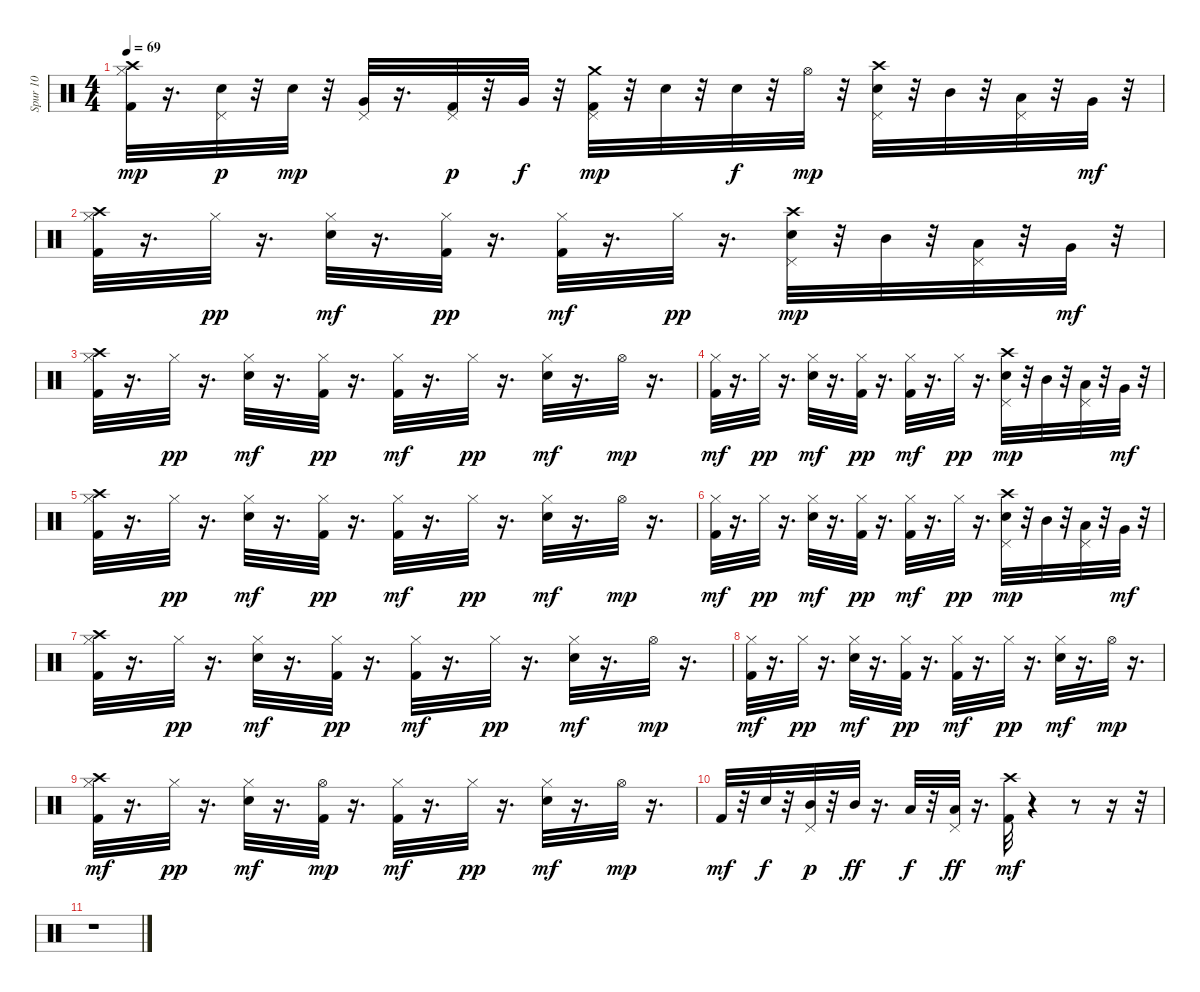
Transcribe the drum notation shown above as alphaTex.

\track ("Spur 10" "Spur 10") {instrument percussion}
\staff {score}
\articulation defaults
\ts (4 4)
\tempo 69
\clef neutral
\ks c
("Kick (hit) 2" "Hi-Hat (closed)" "Crash high (hit)").32{dy mp} r.16{d} ("Electric Snare (hit)" "Pedal Hi-Hat (hit)").32{dy p} r.32 "Electric Snare (hit)".32{dy mp} r.32 ("Very Low Tom (hit)" "Pedal Hi-Hat (hit)").32 r.16{d} ("Kick (hit) 2" "Pedal Hi-Hat (hit)").32{dy p} r.32 "Very Low Tom (hit)".32{dy f} r.32 ("Kick (hit) 2" "Pedal Hi-Hat (hit)" "Crash medium (hit)").32{dy mp} r.32 "Electric Snare (hit)".32 r.32 "Electric Snare (hit)".32{dy f} r.32 "Hi-Hat (open)".32{dy mp} r.32 ("Electric Snare (hit)" "Pedal Hi-Hat (hit)" "Crash high (hit)").32 r.32 "Mid Tom (hit)".32 r.32 ("Pedal Hi-Hat (hit)" "Low Tom (hit)").32 r.32 "Very Low Tom (hit)".32{dy mf} r.32 |
("Crash high (hit)" "Kick (hit) 2" "Hi-Hat (closed)").32 r.16{d} "Hi-Hat (closed)".32{dy pp} r.16{d} ("Electric Snare (hit)" "Hi-Hat (closed)").32{dy mf} r.16{d} ("Kick (hit) 2" "Hi-Hat (closed)").32{dy pp} r.16{d} ("Kick (hit) 2" "Hi-Hat (closed)").32{dy mf} r.16{d} "Hi-Hat (closed)".32{dy pp} r.16{d} ("Electric Snare (hit)" "Pedal Hi-Hat (hit)" "Crash high (hit)").32{dy mp} r.32 "Mid Tom (hit)".32 r.32 ("Pedal Hi-Hat (hit)" "Low Tom (hit)").32 r.32 "Very Low Tom (hit)".32{dy mf} r.32 |
("Crash high (hit)" "Kick (hit) 2" "Hi-Hat (closed)").32 r.16{d} "Hi-Hat (closed)".32{dy pp} r.16{d} ("Electric Snare (hit)" "Hi-Hat (closed)").32{dy mf} r.16{d} ("Kick (hit) 2" "Hi-Hat (closed)").32{dy pp} r.16{d} ("Kick (hit) 2" "Hi-Hat (closed)").32{dy mf} r.16{d} "Hi-Hat (closed)".32{dy pp} r.16{d} ("Electric Snare (hit)" "Hi-Hat (closed)").32{dy mf} r.16{d} "Hi-Hat (open)".32{dy mp} r.16{d} |
("Kick (hit) 2" "Hi-Hat (closed)").32{dy mf} r.16{d} "Hi-Hat (closed)".32{dy pp} r.16{d} ("Electric Snare (hit)" "Hi-Hat (closed)").32{dy mf} r.16{d} ("Kick (hit) 2" "Hi-Hat (closed)").32{dy pp} r.16{d} ("Kick (hit) 2" "Hi-Hat (closed)").32{dy mf} r.16{d} "Hi-Hat (closed)".32{dy pp} r.16{d} ("Electric Snare (hit)" "Pedal Hi-Hat (hit)" "Crash high (hit)").32{dy mp} r.32 "Mid Tom (hit)".32 r.32 ("Pedal Hi-Hat (hit)" "Low Tom (hit)").32 r.32 "Very Low Tom (hit)".32{dy mf} r.32 |
("Crash high (hit)" "Kick (hit) 2" "Hi-Hat (closed)").32 r.16{d} "Hi-Hat (closed)".32{dy pp} r.16{d} ("Electric Snare (hit)" "Hi-Hat (closed)").32{dy mf} r.16{d} ("Kick (hit) 2" "Hi-Hat (closed)").32{dy pp} r.16{d} ("Kick (hit) 2" "Hi-Hat (closed)").32{dy mf} r.16{d} "Hi-Hat (closed)".32{dy pp} r.16{d} ("Electric Snare (hit)" "Hi-Hat (closed)").32{dy mf} r.16{d} "Hi-Hat (open)".32{dy mp} r.16{d} |
("Kick (hit) 2" "Hi-Hat (closed)").32{dy mf} r.16{d} "Hi-Hat (closed)".32{dy pp} r.16{d} ("Electric Snare (hit)" "Hi-Hat (closed)").32{dy mf} r.16{d} ("Kick (hit) 2" "Hi-Hat (closed)").32{dy pp} r.16{d} ("Kick (hit) 2" "Hi-Hat (closed)").32{dy mf} r.16{d} "Hi-Hat (closed)".32{dy pp} r.16{d} ("Electric Snare (hit)" "Pedal Hi-Hat (hit)" "Crash high (hit)").32{dy mp} r.32 "Mid Tom (hit)".32 r.32 ("Pedal Hi-Hat (hit)" "Low Tom (hit)").32 r.32 "Very Low Tom (hit)".32{dy mf} r.32 |
("Crash high (hit)" "Kick (hit) 2" "Hi-Hat (closed)").32 r.16{d} "Hi-Hat (closed)".32{dy pp} r.16{d} ("Electric Snare (hit)" "Hi-Hat (closed)").32{dy mf} r.16{d} ("Kick (hit) 2" "Hi-Hat (closed)").32{dy pp} r.16{d} ("Kick (hit) 2" "Hi-Hat (closed)").32{dy mf} r.16{d} "Hi-Hat (closed)".32{dy pp} r.16{d} ("Electric Snare (hit)" "Hi-Hat (closed)").32{dy mf} r.16{d} "Hi-Hat (open)".32{dy mp} r.16{d} |
("Kick (hit) 2" "Hi-Hat (closed)").32{dy mf} r.16{d} "Hi-Hat (closed)".32{dy pp} r.16{d} ("Electric Snare (hit)" "Hi-Hat (closed)").32{dy mf} r.16{d} ("Kick (hit) 2" "Hi-Hat (closed)").32{dy pp} r.16{d} ("Kick (hit) 2" "Hi-Hat (closed)").32{dy mf} r.16{d} "Hi-Hat (closed)".32{dy pp} r.16{d} ("Electric Snare (hit)" "Hi-Hat (closed)").32{dy mf} r.16{d} "Hi-Hat (open)".32{dy mp} r.16{d} |
("Kick (hit) 2" "Hi-Hat (closed)" "Crash high (hit)").32{dy mf} r.16{d} "Hi-Hat (closed)".32{dy pp} r.16{d} ("Electric Snare (hit)" "Hi-Hat (closed)").32{dy mf} r.16{d} ("Kick (hit) 2" "Hi-Hat (open)").32{dy mp} r.16{d} ("Kick (hit) 2" "Hi-Hat (closed)").32{dy mf} r.16{d} "Hi-Hat (closed)".32{dy pp} r.16{d} ("Electric Snare (hit)" "Hi-Hat (closed)").32{dy mf} r.16{d} "Hi-Hat (open)".32{dy mp} r.16{d} |
"Kick (hit) 2".32{dy mf} r.32 "Electric Snare (hit)".32{dy f} r.32 ("Pedal Hi-Hat (hit)" "Mid Tom (hit)").32{dy p} r.32 "Mid Tom (hit)".32{dy ff} r.16{d} "Low Tom (hit)".32{dy f} r.32 ("Pedal Hi-Hat (hit)" "Low Tom (hit)").32{dy ff} r.16{d} ("Kick (hit) 2" "Crash high (hit)").32{dy mf} r.4 r.8 r.16 r.32 |
r.1
